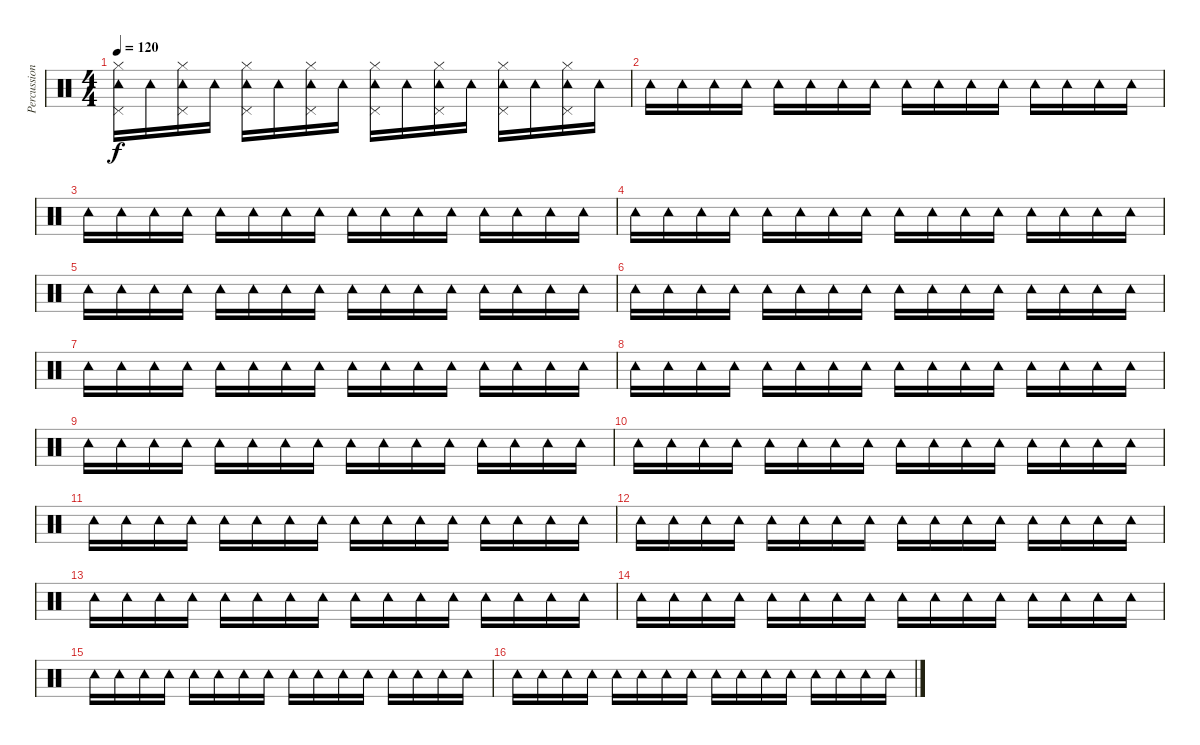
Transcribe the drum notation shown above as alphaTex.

\track ("Percussion" "Percussion") {instrument percussion}
\staff {score}
\articulation defaults
\ts (4 4)
\tempo 120
\clef neutral
\ks c
("Hi-Hat (closed)" "Pedal Hi-Hat (hit)" "Tambourine (hit)").16{dy f} "Tambourine (hit)".16 ("Hi-Hat (closed)" "Pedal Hi-Hat (hit)" "Tambourine (hit)").16 "Tambourine (hit)".16 ("Hi-Hat (closed)" "Pedal Hi-Hat (hit)" "Tambourine (hit)").16 "Tambourine (hit)".16 ("Hi-Hat (closed)" "Pedal Hi-Hat (hit)" "Tambourine (hit)").16 "Tambourine (hit)".16 ("Hi-Hat (closed)" "Pedal Hi-Hat (hit)" "Tambourine (hit)").16 "Tambourine (hit)".16 ("Hi-Hat (closed)" "Pedal Hi-Hat (hit)" "Tambourine (hit)").16 "Tambourine (hit)".16 ("Hi-Hat (closed)" "Pedal Hi-Hat (hit)" "Tambourine (hit)").16 "Tambourine (hit)".16 ("Hi-Hat (closed)" "Pedal Hi-Hat (hit)" "Tambourine (hit)").16 "Tambourine (hit)".16 |
"Tambourine (hit)".16 "Tambourine (hit)".16 "Tambourine (hit)".16 "Tambourine (hit)".16 "Tambourine (hit)".16 "Tambourine (hit)".16 "Tambourine (hit)".16 "Tambourine (hit)".16 "Tambourine (hit)".16 "Tambourine (hit)".16 "Tambourine (hit)".16 "Tambourine (hit)".16 "Tambourine (hit)".16 "Tambourine (hit)".16 "Tambourine (hit)".16 "Tambourine (hit)".16 |
"Tambourine (hit)".16 "Tambourine (hit)".16 "Tambourine (hit)".16 "Tambourine (hit)".16 "Tambourine (hit)".16 "Tambourine (hit)".16 "Tambourine (hit)".16 "Tambourine (hit)".16 "Tambourine (hit)".16 "Tambourine (hit)".16 "Tambourine (hit)".16 "Tambourine (hit)".16 "Tambourine (hit)".16 "Tambourine (hit)".16 "Tambourine (hit)".16 "Tambourine (hit)".16 |
"Tambourine (hit)".16 "Tambourine (hit)".16 "Tambourine (hit)".16 "Tambourine (hit)".16 "Tambourine (hit)".16 "Tambourine (hit)".16 "Tambourine (hit)".16 "Tambourine (hit)".16 "Tambourine (hit)".16 "Tambourine (hit)".16 "Tambourine (hit)".16 "Tambourine (hit)".16 "Tambourine (hit)".16 "Tambourine (hit)".16 "Tambourine (hit)".16 "Tambourine (hit)".16 |
"Tambourine (hit)".16 "Tambourine (hit)".16 "Tambourine (hit)".16 "Tambourine (hit)".16 "Tambourine (hit)".16 "Tambourine (hit)".16 "Tambourine (hit)".16 "Tambourine (hit)".16 "Tambourine (hit)".16 "Tambourine (hit)".16 "Tambourine (hit)".16 "Tambourine (hit)".16 "Tambourine (hit)".16 "Tambourine (hit)".16 "Tambourine (hit)".16 "Tambourine (hit)".16 |
"Tambourine (hit)".16 "Tambourine (hit)".16 "Tambourine (hit)".16 "Tambourine (hit)".16 "Tambourine (hit)".16 "Tambourine (hit)".16 "Tambourine (hit)".16 "Tambourine (hit)".16 "Tambourine (hit)".16 "Tambourine (hit)".16 "Tambourine (hit)".16 "Tambourine (hit)".16 "Tambourine (hit)".16 "Tambourine (hit)".16 "Tambourine (hit)".16 "Tambourine (hit)".16 |
"Tambourine (hit)".16 "Tambourine (hit)".16 "Tambourine (hit)".16 "Tambourine (hit)".16 "Tambourine (hit)".16 "Tambourine (hit)".16 "Tambourine (hit)".16 "Tambourine (hit)".16 "Tambourine (hit)".16 "Tambourine (hit)".16 "Tambourine (hit)".16 "Tambourine (hit)".16 "Tambourine (hit)".16 "Tambourine (hit)".16 "Tambourine (hit)".16 "Tambourine (hit)".16 |
"Tambourine (hit)".16 "Tambourine (hit)".16 "Tambourine (hit)".16 "Tambourine (hit)".16 "Tambourine (hit)".16 "Tambourine (hit)".16 "Tambourine (hit)".16 "Tambourine (hit)".16 "Tambourine (hit)".16 "Tambourine (hit)".16 "Tambourine (hit)".16 "Tambourine (hit)".16 "Tambourine (hit)".16 "Tambourine (hit)".16 "Tambourine (hit)".16 "Tambourine (hit)".16 |
"Tambourine (hit)".16 "Tambourine (hit)".16 "Tambourine (hit)".16 "Tambourine (hit)".16 "Tambourine (hit)".16 "Tambourine (hit)".16 "Tambourine (hit)".16 "Tambourine (hit)".16 "Tambourine (hit)".16 "Tambourine (hit)".16 "Tambourine (hit)".16 "Tambourine (hit)".16 "Tambourine (hit)".16 "Tambourine (hit)".16 "Tambourine (hit)".16 "Tambourine (hit)".16 |
"Tambourine (hit)".16 "Tambourine (hit)".16 "Tambourine (hit)".16 "Tambourine (hit)".16 "Tambourine (hit)".16 "Tambourine (hit)".16 "Tambourine (hit)".16 "Tambourine (hit)".16 "Tambourine (hit)".16 "Tambourine (hit)".16 "Tambourine (hit)".16 "Tambourine (hit)".16 "Tambourine (hit)".16 "Tambourine (hit)".16 "Tambourine (hit)".16 "Tambourine (hit)".16 |
"Tambourine (hit)".16 "Tambourine (hit)".16 "Tambourine (hit)".16 "Tambourine (hit)".16 "Tambourine (hit)".16 "Tambourine (hit)".16 "Tambourine (hit)".16 "Tambourine (hit)".16 "Tambourine (hit)".16 "Tambourine (hit)".16 "Tambourine (hit)".16 "Tambourine (hit)".16 "Tambourine (hit)".16 "Tambourine (hit)".16 "Tambourine (hit)".16 "Tambourine (hit)".16 |
"Tambourine (hit)".16 "Tambourine (hit)".16 "Tambourine (hit)".16 "Tambourine (hit)".16 "Tambourine (hit)".16 "Tambourine (hit)".16 "Tambourine (hit)".16 "Tambourine (hit)".16 "Tambourine (hit)".16 "Tambourine (hit)".16 "Tambourine (hit)".16 "Tambourine (hit)".16 "Tambourine (hit)".16 "Tambourine (hit)".16 "Tambourine (hit)".16 "Tambourine (hit)".16 |
"Tambourine (hit)".16 "Tambourine (hit)".16 "Tambourine (hit)".16 "Tambourine (hit)".16 "Tambourine (hit)".16 "Tambourine (hit)".16 "Tambourine (hit)".16 "Tambourine (hit)".16 "Tambourine (hit)".16 "Tambourine (hit)".16 "Tambourine (hit)".16 "Tambourine (hit)".16 "Tambourine (hit)".16 "Tambourine (hit)".16 "Tambourine (hit)".16 "Tambourine (hit)".16 |
"Tambourine (hit)".16 "Tambourine (hit)".16 "Tambourine (hit)".16 "Tambourine (hit)".16 "Tambourine (hit)".16 "Tambourine (hit)".16 "Tambourine (hit)".16 "Tambourine (hit)".16 "Tambourine (hit)".16 "Tambourine (hit)".16 "Tambourine (hit)".16 "Tambourine (hit)".16 "Tambourine (hit)".16 "Tambourine (hit)".16 "Tambourine (hit)".16 "Tambourine (hit)".16 |
"Tambourine (hit)".16 "Tambourine (hit)".16 "Tambourine (hit)".16 "Tambourine (hit)".16 "Tambourine (hit)".16 "Tambourine (hit)".16 "Tambourine (hit)".16 "Tambourine (hit)".16 "Tambourine (hit)".16 "Tambourine (hit)".16 "Tambourine (hit)".16 "Tambourine (hit)".16 "Tambourine (hit)".16 "Tambourine (hit)".16 "Tambourine (hit)".16 "Tambourine (hit)".16 |
"Tambourine (hit)".16 "Tambourine (hit)".16 "Tambourine (hit)".16 "Tambourine (hit)".16 "Tambourine (hit)".16 "Tambourine (hit)".16 "Tambourine (hit)".16 "Tambourine (hit)".16 "Tambourine (hit)".16 "Tambourine (hit)".16 "Tambourine (hit)".16 "Tambourine (hit)".16 "Tambourine (hit)".16 "Tambourine (hit)".16 "Tambourine (hit)".16 "Tambourine (hit)".16
